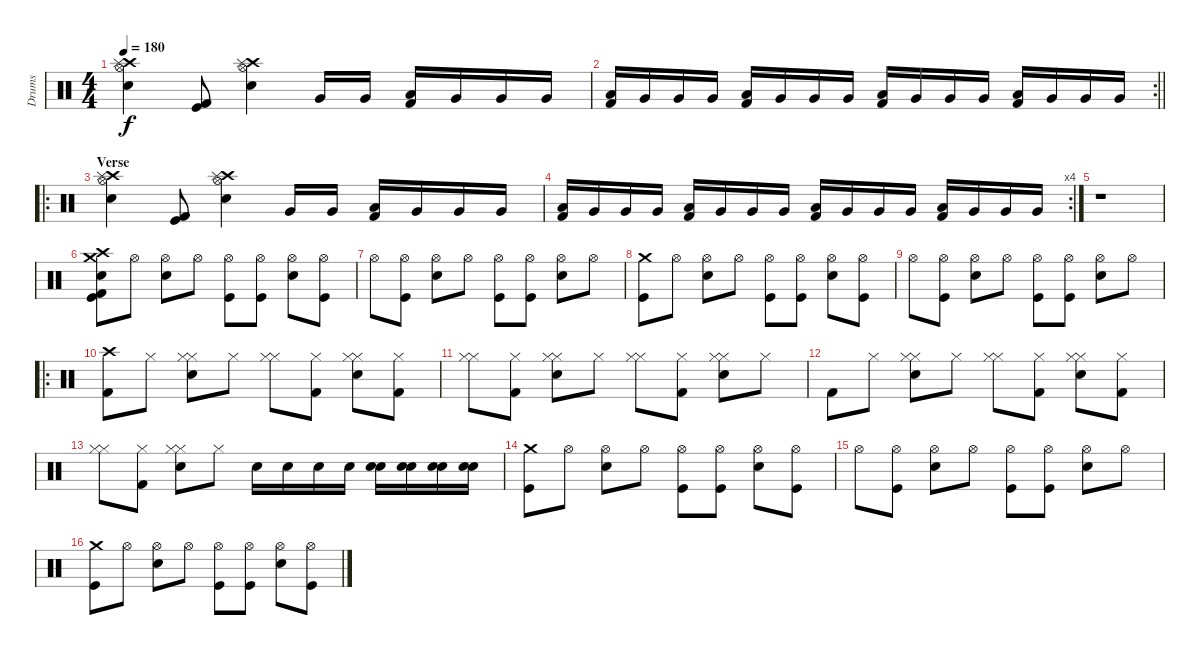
\track ("Drums" "Drums") {instrument percussion}
\staff {score}
\articulation defaults
\ts (4 4)
\tempo 180
\clef neutral
\ks c
("Hi-Hat (open)" "Crash high (hit)" "Electric Snare (hit)" "Splash (hit)").4{dy f} ("Kick (hit)" "Kick (hit) 2").8 ("Hi-Hat (open)" "Crash high (hit)" "Electric Snare (hit)" "Splash (hit)").4 "Very Low Tom (hit)".16 "Very Low Tom (hit)".16 ("Low Tom (hit)" "Kick (hit) 2").16 "Very Low Tom (hit)".16 "Very Low Tom (hit)".16 "Very Low Tom (hit)".16 |
\rc 2
\barLineRight lightlight
("Low Tom (hit)" "Kick (hit) 2").16 "Very Low Tom (hit)".16 "Very Low Tom (hit)".16 "Very Low Tom (hit)".16 ("Low Tom (hit)" "Kick (hit) 2").16 "Very Low Tom (hit)".16 "Very Low Tom (hit)".16 "Very Low Tom (hit)".16 ("Low Tom (hit)" "Kick (hit) 2").16 "Very Low Tom (hit)".16 "Very Low Tom (hit)".16 "Very Low Tom (hit)".16 ("Low Tom (hit)" "Kick (hit) 2").16 "Very Low Tom (hit)".16 "Very Low Tom (hit)".16 "Very Low Tom (hit)".16 |
\ro
\section ("" "Verse")
("Hi-Hat (open)" "Crash high (hit)" "Electric Snare (hit)" "Splash (hit)").4 ("Kick (hit)" "Kick (hit) 2").8 ("Hi-Hat (open)" "Crash high (hit)" "Electric Snare (hit)" "Splash (hit)").4 "Very Low Tom (hit)".16 "Very Low Tom (hit)".16 ("Low Tom (hit)" "Kick (hit) 2").16 "Very Low Tom (hit)".16 "Very Low Tom (hit)".16 "Very Low Tom (hit)".16 |
\rc 4
("Low Tom (hit)" "Kick (hit) 2").16 "Very Low Tom (hit)".16 "Very Low Tom (hit)".16 "Very Low Tom (hit)".16 ("Low Tom (hit)" "Kick (hit) 2").16 "Very Low Tom (hit)".16 "Very Low Tom (hit)".16 "Very Low Tom (hit)".16 ("Low Tom (hit)" "Kick (hit) 2").16 "Very Low Tom (hit)".16 "Very Low Tom (hit)".16 "Very Low Tom (hit)".16 ("Low Tom (hit)" "Kick (hit) 2").16 "Very Low Tom (hit)".16 "Very Low Tom (hit)".16 "Very Low Tom (hit)".16 |
r.1 |
("Crash medium (hit)" "Electric Snare (hit)" "Crash high (hit)" "Kick (hit) 2" "Kick (hit)").8 "Hi-Hat (open)".8 ("Hi-Hat (open)" "Electric Snare (hit)").8 "Hi-Hat (open)".8 ("Hi-Hat (open)" "Kick (hit)").8 ("Hi-Hat (open)" "Kick (hit)").8 ("Hi-Hat (open)" "Electric Snare (hit)").8 ("Hi-Hat (open)" "Kick (hit)").8 |
"Hi-Hat (open)".8 ("Hi-Hat (open)" "Kick (hit)").8 ("Hi-Hat (open)" "Electric Snare (hit)").8 "Hi-Hat (open)".8 ("Hi-Hat (open)" "Kick (hit)").8 ("Hi-Hat (open)" "Kick (hit)").8 ("Hi-Hat (open)" "Electric Snare (hit)").8 "Hi-Hat (open)".8 |
("Crash medium (hit)" "Kick (hit)").8 "Hi-Hat (open)".8 ("Hi-Hat (open)" "Electric Snare (hit)").8 "Hi-Hat (open)".8 ("Hi-Hat (open)" "Kick (hit)").8 ("Hi-Hat (open)" "Kick (hit)").8 ("Hi-Hat (open)" "Electric Snare (hit)").8 ("Hi-Hat (open)" "Kick (hit)").8 |
"Hi-Hat (open)".8 ("Hi-Hat (open)" "Kick (hit)").8 ("Hi-Hat (open)" "Electric Snare (hit)").8 "Hi-Hat (open)".8 ("Hi-Hat (open)" "Kick (hit)").8 ("Hi-Hat (open)" "Kick (hit)").8 ("Hi-Hat (open)" "Electric Snare (hit)").8 "Hi-Hat (open)".8 |
\ro
("Crash high (hit)" "Kick (hit) 2").8 "Hi-Hat (closed)".8 ("Hi-Hat (closed)" "Snare (hit) 2" "Hi-Hat (closed)").8 "Hi-Hat (closed)".8 ("Hi-Hat (closed)" "Hi-Hat (closed)").8 ("Kick (hit) 2" "Hi-Hat (closed)").8 ("Hi-Hat (closed)" "Snare (hit) 2" "Hi-Hat (closed)").8 ("Kick (hit) 2" "Hi-Hat (closed)").8 |
("Hi-Hat (closed)" "Hi-Hat (closed)").8 ("Kick (hit) 2" "Hi-Hat (closed)").8 ("Hi-Hat (closed)" "Snare (hit) 2" "Hi-Hat (closed)").8 "Hi-Hat (closed)".8 ("Hi-Hat (closed)" "Hi-Hat (closed)").8 ("Kick (hit) 2" "Hi-Hat (closed)").8 ("Hi-Hat (closed)" "Snare (hit) 2" "Hi-Hat (closed)").8 "Hi-Hat (closed)".8 |
"Kick (hit) 2".8 "Hi-Hat (closed)".8 ("Hi-Hat (closed)" "Snare (hit) 2" "Hi-Hat (closed)").8 "Hi-Hat (closed)".8 ("Hi-Hat (closed)" "Hi-Hat (closed)").8 ("Kick (hit) 2" "Hi-Hat (closed)").8 ("Hi-Hat (closed)" "Snare (hit) 2" "Hi-Hat (closed)").8 ("Kick (hit) 2" "Hi-Hat (closed)").8 |
("Hi-Hat (closed)" "Hi-Hat (closed)").8 ("Kick (hit) 2" "Hi-Hat (closed)").8 ("Hi-Hat (closed)" "Snare (hit) 2" "Hi-Hat (closed)").8 "Hi-Hat (closed)".8 "Electric Snare (hit)".16 "Electric Snare (hit)".16 "Electric Snare (hit)".16 "Electric Snare (hit)".16 ("Snare (hit) 2" "Electric Snare (hit)").16 ("Snare (hit) 2" "Electric Snare (hit)").16 ("Snare (hit) 2" "Electric Snare (hit)").16 ("Snare (hit) 2" "Electric Snare (hit)").16 |
("Crash medium (hit)" "Kick (hit)").8 "Hi-Hat (open)".8 ("Hi-Hat (open)" "Electric Snare (hit)").8 "Hi-Hat (open)".8 ("Hi-Hat (open)" "Kick (hit)").8 ("Hi-Hat (open)" "Kick (hit)").8 ("Hi-Hat (open)" "Electric Snare (hit)").8 ("Hi-Hat (open)" "Kick (hit)").8 |
"Hi-Hat (open)".8 ("Hi-Hat (open)" "Kick (hit)").8 ("Hi-Hat (open)" "Electric Snare (hit)").8 "Hi-Hat (open)".8 ("Hi-Hat (open)" "Kick (hit)").8 ("Hi-Hat (open)" "Kick (hit)").8 ("Hi-Hat (open)" "Electric Snare (hit)").8 "Hi-Hat (open)".8 |
("Crash medium (hit)" "Kick (hit)").8 "Hi-Hat (open)".8 ("Hi-Hat (open)" "Electric Snare (hit)").8 "Hi-Hat (open)".8 ("Hi-Hat (open)" "Kick (hit)").8 ("Hi-Hat (open)" "Kick (hit)").8 ("Hi-Hat (open)" "Electric Snare (hit)").8 ("Hi-Hat (open)" "Kick (hit)").8
